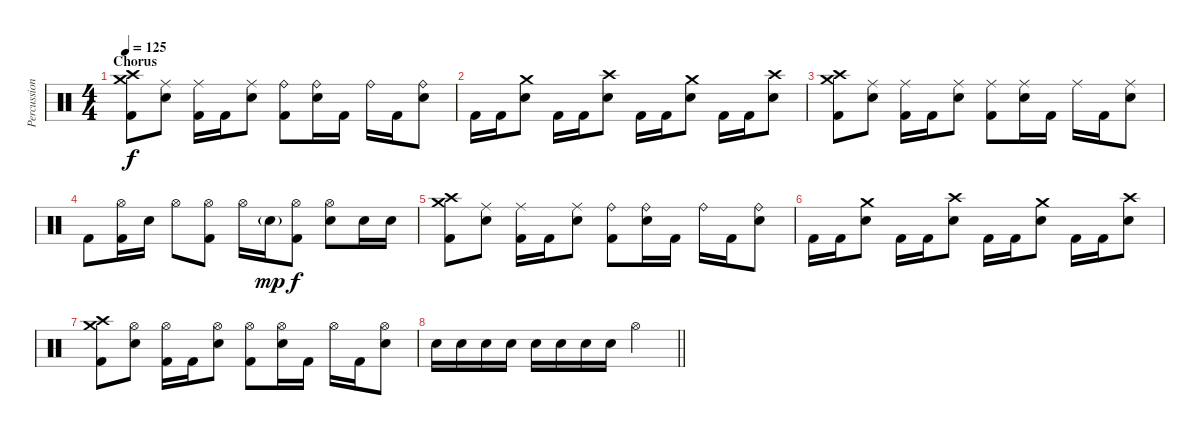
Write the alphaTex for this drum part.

\track ("Percussion" "Percussion") {instrument percussion}
\staff {score}
\articulation defaults
\ts (4 4)
\section ("" "Chorus")
\tempo 125
\clef neutral
\ks c
("Crash medium (hit)" "Crash high (hit)" "Kick (hit) 2").8{dy f} ("Ride (middle)" "Electric Snare (hit)").8 ("Ride (middle)" "Kick (hit) 2").16 "Kick (hit) 2".16 ("Ride (middle)" "Electric Snare (hit)").8 ("Ride (bell)" "Kick (hit) 2").8 ("Ride (bell)" "Electric Snare (hit)").16 "Kick (hit) 2".16 "Ride (bell)".16 "Kick (hit) 2".16 ("Ride (bell)" "Electric Snare (hit)").8 |
"Kick (hit) 2".16 "Kick (hit) 2".16 ("Crash medium (hit)" "Electric Snare (hit)").8 "Kick (hit) 2".16 "Kick (hit) 2".16 ("Crash high (hit)" "Electric Snare (hit)").8 "Kick (hit) 2".16 "Kick (hit) 2".16 ("Crash medium (hit)" "Electric Snare (hit)").8 "Kick (hit) 2".16 "Kick (hit) 2".16 ("Crash high (hit)" "Electric Snare (hit)").8 |
("Crash medium (hit)" "Crash high (hit)" "Kick (hit) 2").8 ("Ride (middle)" "Electric Snare (hit)").8 ("Ride (middle)" "Kick (hit) 2").16 "Kick (hit) 2".16 ("Ride (middle)" "Electric Snare (hit)").8 ("Ride (middle)" "Kick (hit) 2").8 ("Ride (middle)" "Electric Snare (hit)").16 "Kick (hit) 2".16 "Ride (middle)".16 "Kick (hit) 2".16 ("Ride (middle)" "Electric Snare (hit)").8 |
"Kick (hit) 2".8 ("Hi-Hat (open)" "Kick (hit) 2").16 "Electric Snare (hit)".16 "Hi-Hat (open)".8 ("Hi-Hat (open)" "Kick (hit) 2").8 "Hi-Hat (open)".16 "Electric Snare (hit)"{g}.16{dy mp} ("Hi-Hat (open)" "Kick (hit) 2").8{dy f} ("Hi-Hat (open)" "Electric Snare (hit)").8 "Electric Snare (hit)".16 "Electric Snare (hit)".16 |
("Crash medium (hit)" "Crash high (hit)" "Kick (hit) 2").8 ("Ride (middle)" "Electric Snare (hit)").8 ("Ride (middle)" "Kick (hit) 2").16 "Kick (hit) 2".16 ("Ride (middle)" "Electric Snare (hit)").8 ("Ride (bell)" "Kick (hit) 2").8 ("Ride (bell)" "Electric Snare (hit)").16 "Kick (hit) 2".16 "Ride (bell)".16 "Kick (hit) 2".16 ("Ride (bell)" "Electric Snare (hit)").8 |
"Kick (hit) 2".16 "Kick (hit) 2".16 ("Crash medium (hit)" "Electric Snare (hit)").8 "Kick (hit) 2".16 "Kick (hit) 2".16 ("Crash high (hit)" "Electric Snare (hit)").8 "Kick (hit) 2".16 "Kick (hit) 2".16 ("Crash medium (hit)" "Electric Snare (hit)").8 "Kick (hit) 2".16 "Kick (hit) 2".16 ("Crash high (hit)" "Electric Snare (hit)").8 |
("Crash medium (hit)" "Crash high (hit)" "Kick (hit) 2").8 ("Hi-Hat (open)" "Electric Snare (hit)").8 ("Hi-Hat (open)" "Kick (hit) 2").16 "Kick (hit) 2".16 ("Hi-Hat (open)" "Electric Snare (hit)").8 ("Hi-Hat (open)" "Kick (hit) 2").8 ("Hi-Hat (open)" "Electric Snare (hit)").16 "Kick (hit) 2".16 "Hi-Hat (open)".16 "Kick (hit) 2".16 ("Hi-Hat (open)" "Electric Snare (hit)").8 |
\barLineRight lightlight "Electric Snare (hit)".16 "Electric Snare (hit)".16 "Electric Snare (hit)".16 "Electric Snare (hit)".16 "Electric Snare (hit)".16 "Electric Snare (hit)".16 "Electric Snare (hit)".16 "Electric Snare (hit)".16 "Hi-Hat (open)".2
